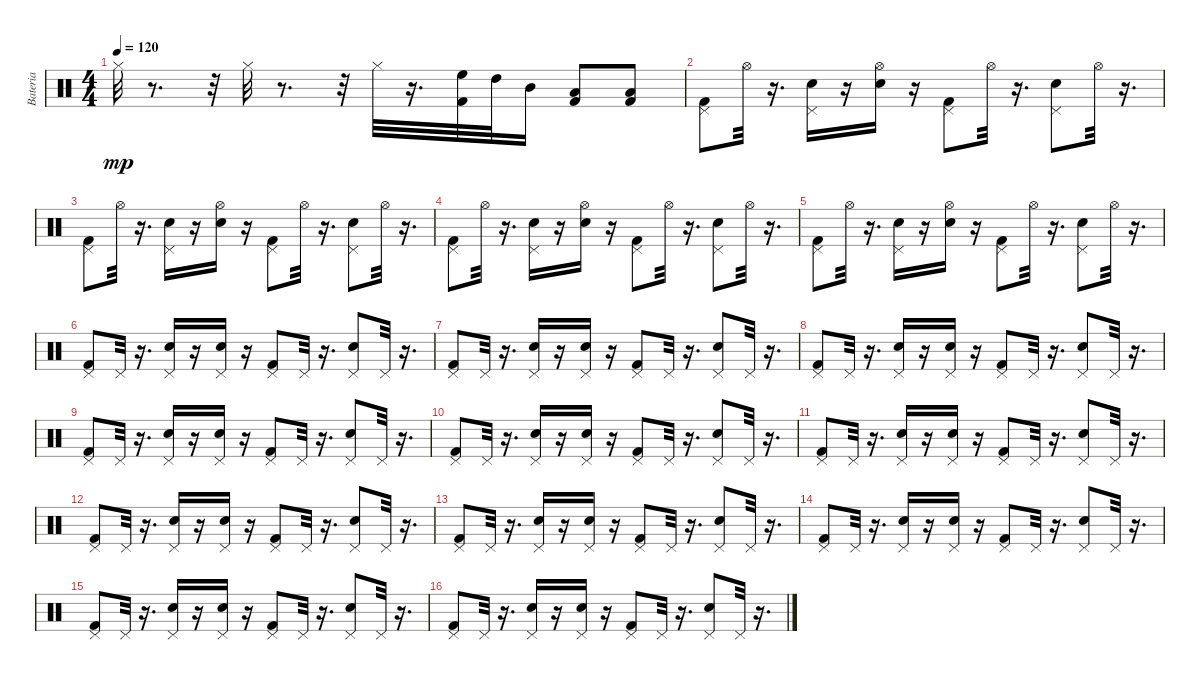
\track ("Bateria" "Bateria") {instrument percussion}
\staff {score}
\articulation defaults
\ts (4 4)
\tempo 120
\clef neutral
\ks c "Hi-Hat (closed)".32{dy mp}
r.8{d} r.32 "Hi-Hat (closed)".32{volume 15} r.8{d} r.32 "Hi-Hat (closed)".32 r.16{d} ("Kick (hit) 2" "High Floor Tom (hit)").32 "High Tom (hit)".32 "Mid Tom (hit)".16 ("Low Tom (hit)" "Kick (hit) 2").8 ("Low Floor Tom (hit)" "Kick (hit) 2").8 |
("Kick (hit) 2" "Pedal Hi-Hat (hit)").8 "Hi-Hat (open)".32 r.16{d} ("Snare (hit) 2" "Pedal Hi-Hat (hit)").16 r.16 ("Snare (hit) 2" "Hi-Hat (open)").16 r.16 ("Kick (hit) 2" "Pedal Hi-Hat (hit)").8 "Hi-Hat (open)".32 r.16{d} ("Snare (hit) 2" "Pedal Hi-Hat (hit)").8 "Hi-Hat (open)".32 r.16{d} |
("Kick (hit) 2" "Pedal Hi-Hat (hit)").8 "Hi-Hat (open)".32 r.16{d} ("Snare (hit) 2" "Pedal Hi-Hat (hit)").16 r.16 ("Snare (hit) 2" "Hi-Hat (open)").16 r.16 ("Kick (hit) 2" "Pedal Hi-Hat (hit)").8 "Hi-Hat (open)".32 r.16{d} ("Snare (hit) 2" "Pedal Hi-Hat (hit)").8 "Hi-Hat (open)".32 r.16{d} |
("Kick (hit) 2" "Pedal Hi-Hat (hit)").8 "Hi-Hat (open)".32 r.16{d} ("Snare (hit) 2" "Pedal Hi-Hat (hit)").16 r.16 ("Snare (hit) 2" "Hi-Hat (open)").16 r.16 ("Kick (hit) 2" "Pedal Hi-Hat (hit)").8 "Hi-Hat (open)".32 r.16{d} ("Snare (hit) 2" "Pedal Hi-Hat (hit)").8 "Hi-Hat (open)".32 r.16{d} |
("Kick (hit) 2" "Pedal Hi-Hat (hit)").8 "Hi-Hat (open)".32 r.16{d} ("Snare (hit) 2" "Pedal Hi-Hat (hit)").16 r.16 ("Snare (hit) 2" "Hi-Hat (open)").16 r.16 ("Kick (hit) 2" "Pedal Hi-Hat (hit)").8 "Hi-Hat (open)".32 r.16{d} ("Snare (hit) 2" "Pedal Hi-Hat (hit)").8 "Hi-Hat (open)".32 r.16{d} |
("Kick (hit) 2" "Pedal Hi-Hat (hit)").8 "Pedal Hi-Hat (hit)".32 r.16{d} ("Snare (hit) 2" "Pedal Hi-Hat (hit)").16 r.16 ("Snare (hit) 2" "Pedal Hi-Hat (hit)").16 r.16 ("Kick (hit) 2" "Pedal Hi-Hat (hit)").8 "Pedal Hi-Hat (hit)".32 r.16{d} ("Snare (hit) 2" "Pedal Hi-Hat (hit)").8 "Pedal Hi-Hat (hit)".32 r.16{d} |
("Kick (hit) 2" "Pedal Hi-Hat (hit)").8 "Pedal Hi-Hat (hit)".32 r.16{d} ("Snare (hit) 2" "Pedal Hi-Hat (hit)").16 r.16 ("Snare (hit) 2" "Pedal Hi-Hat (hit)").16 r.16 ("Kick (hit) 2" "Pedal Hi-Hat (hit)").8 "Pedal Hi-Hat (hit)".32 r.16{d} ("Snare (hit) 2" "Pedal Hi-Hat (hit)").8 "Pedal Hi-Hat (hit)".32 r.16{d} |
("Kick (hit) 2" "Pedal Hi-Hat (hit)").8 "Pedal Hi-Hat (hit)".32 r.16{d} ("Snare (hit) 2" "Pedal Hi-Hat (hit)").16 r.16 ("Snare (hit) 2" "Pedal Hi-Hat (hit)").16 r.16 ("Kick (hit) 2" "Pedal Hi-Hat (hit)").8 "Pedal Hi-Hat (hit)".32 r.16{d} ("Snare (hit) 2" "Pedal Hi-Hat (hit)").8 "Pedal Hi-Hat (hit)".32 r.16{d} |
("Kick (hit) 2" "Pedal Hi-Hat (hit)").8 "Pedal Hi-Hat (hit)".32 r.16{d} ("Snare (hit) 2" "Pedal Hi-Hat (hit)").16 r.16 ("Snare (hit) 2" "Pedal Hi-Hat (hit)").16 r.16 ("Kick (hit) 2" "Pedal Hi-Hat (hit)").8 "Pedal Hi-Hat (hit)".32 r.16{d} ("Snare (hit) 2" "Pedal Hi-Hat (hit)").8 "Pedal Hi-Hat (hit)".32 r.16{d} |
("Kick (hit) 2" "Pedal Hi-Hat (hit)").8 "Pedal Hi-Hat (hit)".32 r.16{d} ("Snare (hit) 2" "Pedal Hi-Hat (hit)").16 r.16 ("Snare (hit) 2" "Pedal Hi-Hat (hit)").16 r.16 ("Kick (hit) 2" "Pedal Hi-Hat (hit)").8 "Pedal Hi-Hat (hit)".32 r.16{d} ("Snare (hit) 2" "Pedal Hi-Hat (hit)").8 "Pedal Hi-Hat (hit)".32 r.16{d} |
("Kick (hit) 2" "Pedal Hi-Hat (hit)").8 "Pedal Hi-Hat (hit)".32 r.16{d} ("Snare (hit) 2" "Pedal Hi-Hat (hit)").16 r.16 ("Snare (hit) 2" "Pedal Hi-Hat (hit)").16 r.16 ("Kick (hit) 2" "Pedal Hi-Hat (hit)").8 "Pedal Hi-Hat (hit)".32 r.16{d} ("Snare (hit) 2" "Pedal Hi-Hat (hit)").8 "Pedal Hi-Hat (hit)".32 r.16{d} |
("Kick (hit) 2" "Pedal Hi-Hat (hit)").8 "Pedal Hi-Hat (hit)".32 r.16{d} ("Snare (hit) 2" "Pedal Hi-Hat (hit)").16 r.16 ("Snare (hit) 2" "Pedal Hi-Hat (hit)").16 r.16 ("Kick (hit) 2" "Pedal Hi-Hat (hit)").8 "Pedal Hi-Hat (hit)".32 r.16{d} ("Snare (hit) 2" "Pedal Hi-Hat (hit)").8 "Pedal Hi-Hat (hit)".32 r.16{d} |
("Kick (hit) 2" "Pedal Hi-Hat (hit)").8 "Pedal Hi-Hat (hit)".32 r.16{d} ("Snare (hit) 2" "Pedal Hi-Hat (hit)").16 r.16 ("Snare (hit) 2" "Pedal Hi-Hat (hit)").16 r.16 ("Kick (hit) 2" "Pedal Hi-Hat (hit)").8 "Pedal Hi-Hat (hit)".32 r.16{d} ("Snare (hit) 2" "Pedal Hi-Hat (hit)").8 "Pedal Hi-Hat (hit)".32 r.16{d} |
("Kick (hit) 2" "Pedal Hi-Hat (hit)").8 "Pedal Hi-Hat (hit)".32 r.16{d} ("Snare (hit) 2" "Pedal Hi-Hat (hit)").16 r.16 ("Snare (hit) 2" "Pedal Hi-Hat (hit)").16 r.16 ("Kick (hit) 2" "Pedal Hi-Hat (hit)").8 "Pedal Hi-Hat (hit)".32 r.16{d} ("Snare (hit) 2" "Pedal Hi-Hat (hit)").8 "Pedal Hi-Hat (hit)".32 r.16{d} |
("Kick (hit) 2" "Pedal Hi-Hat (hit)").8 "Pedal Hi-Hat (hit)".32 r.16{d} ("Snare (hit) 2" "Pedal Hi-Hat (hit)").16 r.16 ("Snare (hit) 2" "Pedal Hi-Hat (hit)").16 r.16 ("Kick (hit) 2" "Pedal Hi-Hat (hit)").8 "Pedal Hi-Hat (hit)".32 r.16{d} ("Snare (hit) 2" "Pedal Hi-Hat (hit)").8 "Pedal Hi-Hat (hit)".32 r.16{d} |
("Kick (hit) 2" "Pedal Hi-Hat (hit)").8 "Pedal Hi-Hat (hit)".32 r.16{d} ("Snare (hit) 2" "Pedal Hi-Hat (hit)").16 r.16 ("Snare (hit) 2" "Pedal Hi-Hat (hit)").16 r.16 ("Kick (hit) 2" "Pedal Hi-Hat (hit)").8 "Pedal Hi-Hat (hit)".32 r.16{d} ("Snare (hit) 2" "Pedal Hi-Hat (hit)").8 "Pedal Hi-Hat (hit)".32 r.16{d}
